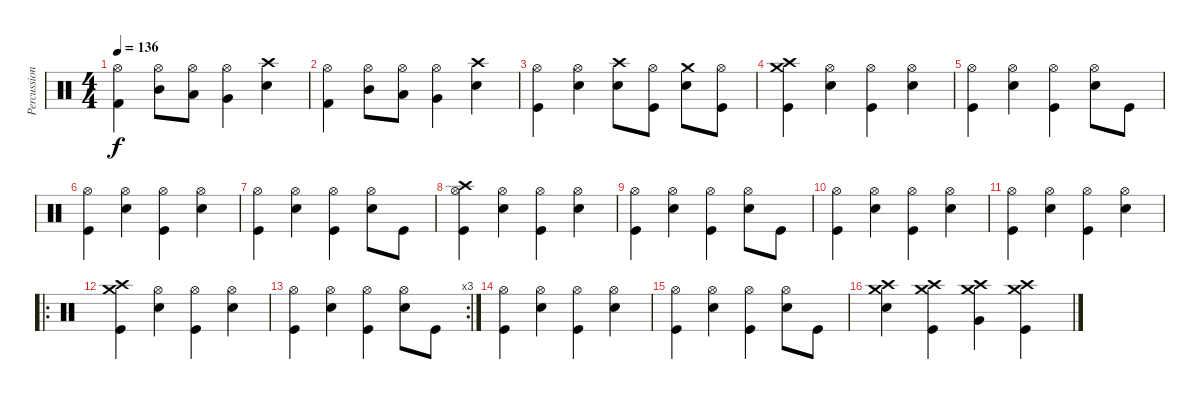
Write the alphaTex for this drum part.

\track ("Percussion" "Percussion") {instrument percussion}
\staff {score}
\articulation defaults
\ts (4 4)
\tempo 136
\clef neutral
\ks c
("Hi-Hat (open)" "Kick (hit) 2").4{dy f} ("Hi-Hat (open)" "Mid Tom (hit)").8 ("Hi-Hat (open)" "Low Tom (hit)").8 ("Hi-Hat (open)" "Very Low Tom (hit)").4 ("Crash high (hit)" "Electric Snare (hit)").4 |
("Hi-Hat (open)" "Kick (hit) 2").4 ("Hi-Hat (open)" "Mid Tom (hit)").8 ("Hi-Hat (open)" "Low Tom (hit)").8 ("Hi-Hat (open)" "Very Low Tom (hit)").4 ("Crash high (hit)" "Electric Snare (hit)").4 |
("Hi-Hat (open)" "Kick (hit)").4 ("Hi-Hat (open)" "Electric Snare (hit)").4 ("Crash high (hit)" "Electric Snare (hit)").8 ("Hi-Hat (open)" "Kick (hit)").8 ("Crash medium (hit)" "Electric Snare (hit)").8 ("Hi-Hat (open)" "Kick (hit)").8 |
("Crash high (hit)" "Crash medium (hit)" "Kick (hit)").4 ("Hi-Hat (open)" "Electric Snare (hit)").4 ("Hi-Hat (open)" "Kick (hit)").4 ("Hi-Hat (open)" "Electric Snare (hit)").4 |
("Hi-Hat (open)" "Kick (hit)").4 ("Hi-Hat (open)" "Electric Snare (hit)").4 ("Hi-Hat (open)" "Kick (hit)").4 ("Hi-Hat (open)" "Electric Snare (hit)").8 "Kick (hit)".8 |
("Hi-Hat (open)" "Kick (hit)").4 ("Hi-Hat (open)" "Electric Snare (hit)").4 ("Hi-Hat (open)" "Kick (hit)").4 ("Hi-Hat (open)" "Electric Snare (hit)").4 |
("Hi-Hat (open)" "Kick (hit)").4 ("Hi-Hat (open)" "Electric Snare (hit)").4 ("Hi-Hat (open)" "Kick (hit)").4 ("Hi-Hat (open)" "Electric Snare (hit)").8 "Kick (hit)".8 |
("Crash high (hit)" "Hi-Hat (open)" "Kick (hit)").4 ("Hi-Hat (open)" "Electric Snare (hit)").4 ("Hi-Hat (open)" "Kick (hit)").4 ("Hi-Hat (open)" "Electric Snare (hit)").4 |
("Hi-Hat (open)" "Kick (hit)").4 ("Hi-Hat (open)" "Electric Snare (hit)").4 ("Hi-Hat (open)" "Kick (hit)").4 ("Hi-Hat (open)" "Electric Snare (hit)").8 "Kick (hit)".8 |
("Hi-Hat (open)" "Kick (hit)").4 ("Hi-Hat (open)" "Electric Snare (hit)").4 ("Hi-Hat (open)" "Kick (hit)").4 ("Hi-Hat (open)" "Electric Snare (hit)").4 |
("Hi-Hat (open)" "Kick (hit)").4 ("Hi-Hat (open)" "Electric Snare (hit)").4 ("Hi-Hat (open)" "Kick (hit)").4 ("Hi-Hat (open)" "Electric Snare (hit)").4 |
\ro
("Crash high (hit)" "Crash medium (hit)" "Kick (hit)").4 ("Hi-Hat (open)" "Electric Snare (hit)").4 ("Hi-Hat (open)" "Kick (hit)").4 ("Hi-Hat (open)" "Electric Snare (hit)").4 |
\rc 3
("Hi-Hat (open)" "Kick (hit)").4 ("Hi-Hat (open)" "Electric Snare (hit)").4 ("Hi-Hat (open)" "Kick (hit)").4 ("Hi-Hat (open)" "Electric Snare (hit)").8 "Kick (hit)".8 |
("Hi-Hat (open)" "Kick (hit)").4 ("Hi-Hat (open)" "Electric Snare (hit)").4 ("Hi-Hat (open)" "Kick (hit)").4 ("Hi-Hat (open)" "Electric Snare (hit)").4 |
("Hi-Hat (open)" "Kick (hit)").4 ("Hi-Hat (open)" "Electric Snare (hit)").4 ("Hi-Hat (open)" "Kick (hit)").4 ("Hi-Hat (open)" "Electric Snare (hit)").8 "Kick (hit)".8 |
("Crash high (hit)" "Crash medium (hit)" "Electric Snare (hit)").4 ("Crash high (hit)" "Crash medium (hit)" "Kick (hit)").4 ("Crash high (hit)" "Crash medium (hit)" "Very Low Tom (hit)").4 ("Crash high (hit)" "Crash medium (hit)" "Kick (hit)").4
